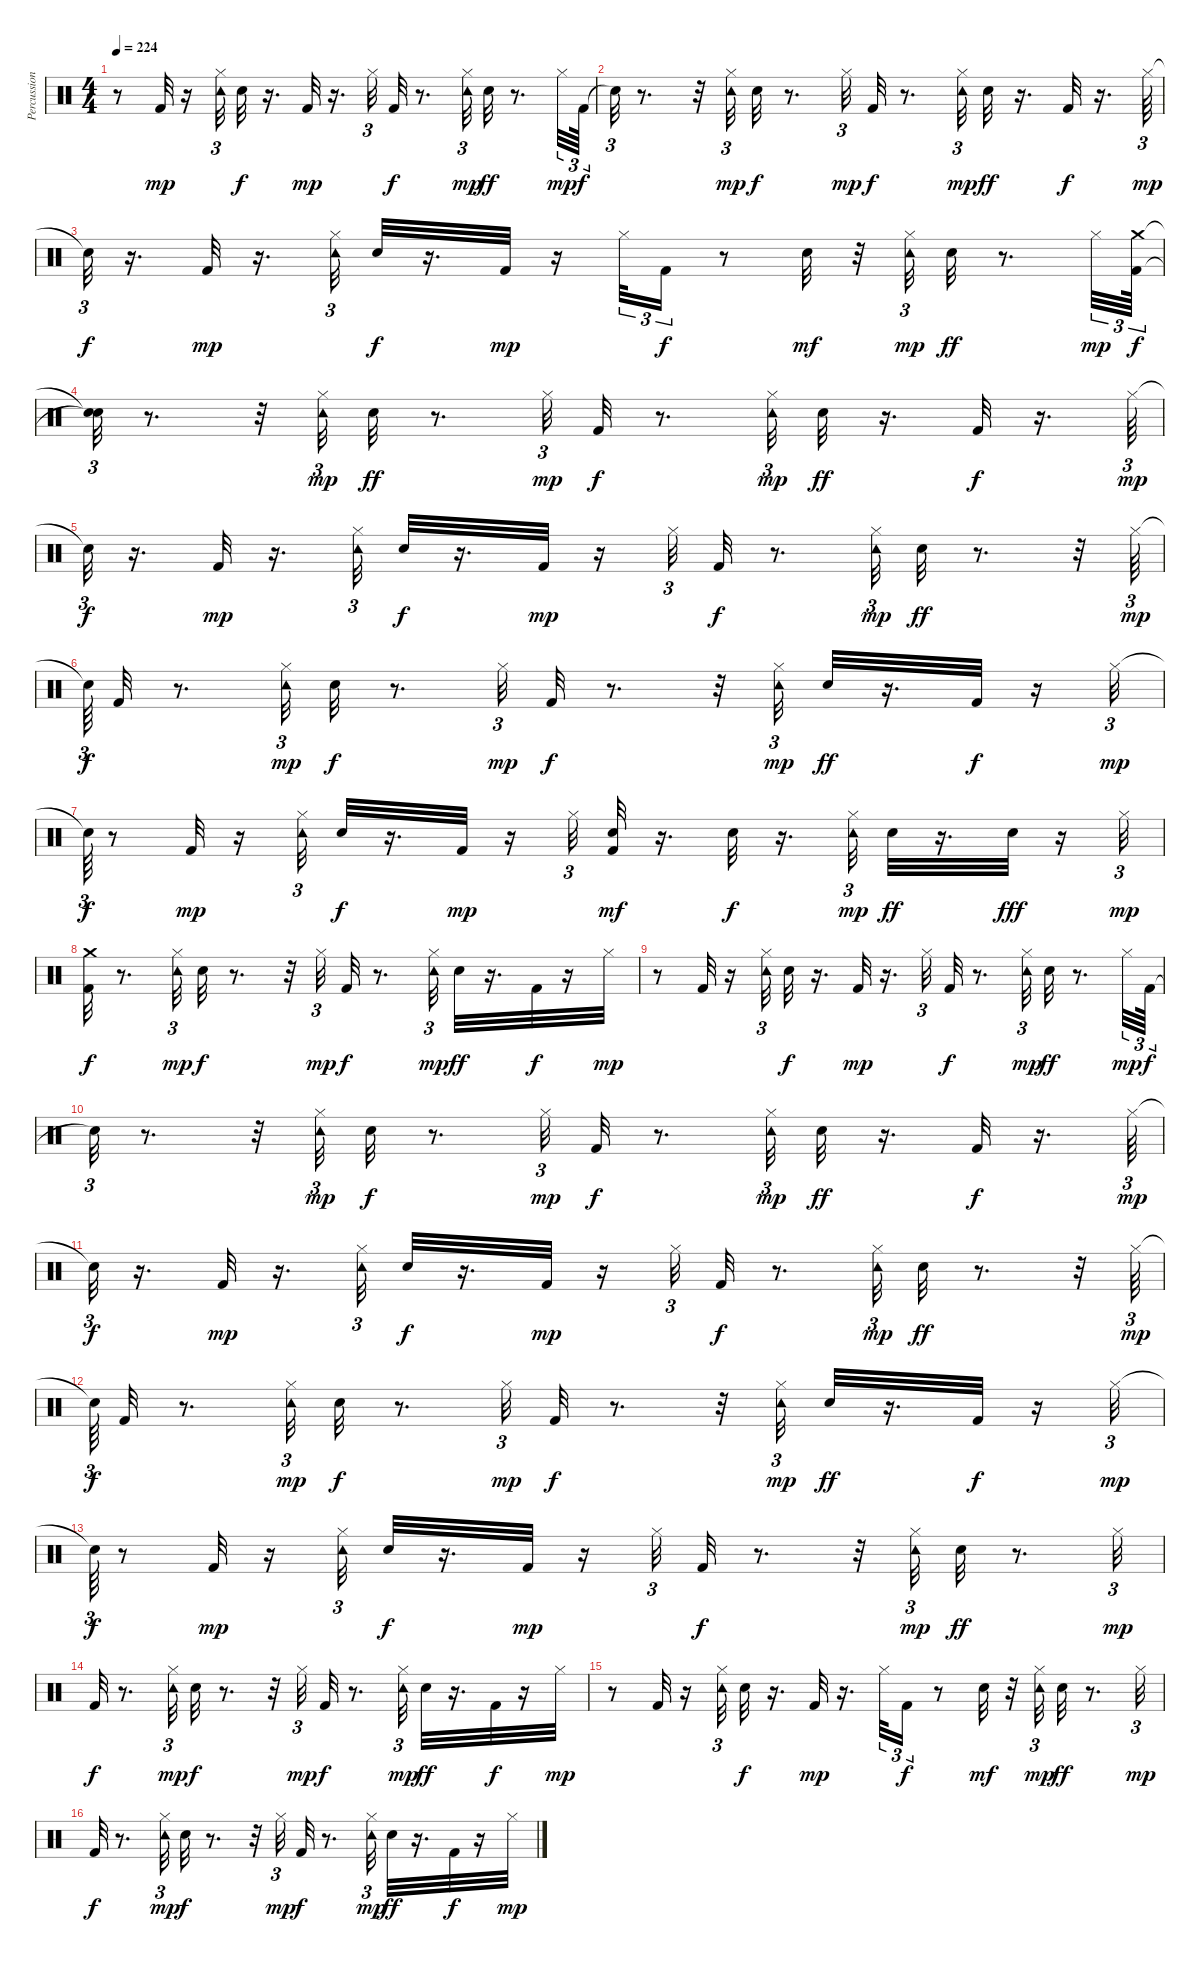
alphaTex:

\track ("Percussion" "Percussion") {instrument percussion}
\staff {score}
\articulation defaults
\ts (4 4)
\tempo 224
\clef neutral
\ks c
r.8{dy mp} "Kick (hit) 2".32 r.16 ("Tambourine (hit)" "Hi-Hat (closed)").32{tu (3 2)} "Snare (hit) 2".32{dy f} r.16{d} "Kick (hit) 2".32{dy mp} r.16{d} "Hi-Hat (closed)".32{tu (3 2)} "Kick (hit) 2".32{dy f} r.8{d} ("Tambourine (hit)" "Hi-Hat (closed)").32{tu (3 2) dy mp} "Snare (hit) 2".32{dy ff} r.8{d} "Hi-Hat (closed)".32{tu (3 2) dy mp} "Kick (hit) 2".64{tu (3 2) dy f} |
"Snare (hit)"{t}.32{tu (3 2)} r.8{d} r.32 ("Tambourine (hit)" "Hi-Hat (closed)").32{tu (3 2) dy mp} "Snare (hit) 2".32{dy f} r.8{d} "Hi-Hat (closed)".32{tu (3 2) dy mp} "Kick (hit) 2".32{dy f} r.8{d} ("Tambourine (hit)" "Hi-Hat (closed)").32{tu (3 2) dy mp} "Snare (hit) 2".32{dy ff} r.16{d} "Kick (hit) 2".32{dy f} r.16{d} "Hi-Hat (closed)".64{tu (3 2) dy mp} |
"Snare (hit)"{t}.32{tu (3 2) dy f} r.16{d} "Kick (hit) 2".32{dy mp} r.16{d} ("Tambourine (hit)" "Hi-Hat (closed)").32{tu (3 2)} "Snare (hit) 2".32{dy f} r.16{d} "Kick (hit) 2".32{dy mp} r.16 "Hi-Hat (closed)".32{tu (3 2)} "Kick (hit) 2".16{tu (3 2) dy f} r.8 "Snare (hit) 2".32{dy mf} r.32 ("Tambourine (hit)" "Hi-Hat (closed)").32{tu (3 2) dy mp} "Snare (hit) 2".32{dy ff} r.8{d} "Hi-Hat (closed)".32{tu (3 2) dy mp} ("Kick (hit) 2" "Crash medium (hit)").64{tu (3 2) dy f} |
("Snare (hit)"{t} "Snare (hit)"{t}).32{tu (3 2)} r.8{d} r.32 ("Tambourine (hit)" "Hi-Hat (closed)").32{tu (3 2) dy mp} "Snare (hit) 2".32{dy ff} r.8{d} "Hi-Hat (closed)".32{tu (3 2) dy mp} "Kick (hit) 2".32{dy f} r.8{d} ("Tambourine (hit)" "Hi-Hat (closed)").32{tu (3 2) dy mp} "Snare (hit) 2".32{dy ff} r.16{d} "Kick (hit) 2".32{dy f} r.16{d} "Hi-Hat (closed)".64{tu (3 2) dy mp} |
"Snare (hit)"{t}.32{tu (3 2) dy f} r.16{d} "Kick (hit) 2".32{dy mp} r.16{d} ("Tambourine (hit)" "Hi-Hat (closed)").32{tu (3 2)} "Snare (hit) 2".32{dy f} r.16{d} "Kick (hit) 2".32{dy mp} r.16 "Hi-Hat (closed)".32{tu (3 2)} "Kick (hit) 2".32{dy f} r.8{d} ("Tambourine (hit)" "Hi-Hat (closed)").32{tu (3 2) dy mp} "Snare (hit) 2".32{dy ff} r.8{d} r.32 "Hi-Hat (closed)".64{tu (3 2) dy mp} |
"Snare (hit)"{t}.64{tu (3 2) dy f} "Kick (hit) 2".32 r.8{d} ("Tambourine (hit)" "Hi-Hat (closed)").32{tu (3 2) dy mp} "Snare (hit) 2".32{dy f} r.8{d} "Hi-Hat (closed)".32{tu (3 2) dy mp} "Kick (hit) 2".32{dy f} r.8{d} r.32 ("Tambourine (hit)" "Hi-Hat (closed)").32{tu (3 2) dy mp} "Snare (hit) 2".32{dy ff} r.16{d} "Kick (hit) 2".32{dy f} r.16 "Hi-Hat (closed)".32{tu (3 2) dy mp} |
"Snare (hit)"{t}.64{tu (3 2) dy f} r.8 "Kick (hit) 2".32{dy mp} r.16 ("Tambourine (hit)" "Hi-Hat (closed)").32{tu (3 2)} "Snare (hit) 2".32{dy f} r.16{d} "Kick (hit) 2".32{dy mp} r.16 "Hi-Hat (closed)".32{tu (3 2)} ("Kick (hit) 2" "Snare (hit) 2").32{dy mf} r.16{d} "Snare (hit) 2".32{dy f} r.16{d} ("Tambourine (hit)" "Hi-Hat (closed)").32{tu (3 2) dy mp} "Snare (hit) 2".32{dy ff} r.16{d} "Snare (hit) 2".32{dy fff} r.16 "Hi-Hat (closed)".32{tu (3 2) dy mp} |
("Kick (hit) 2" "Crash medium (hit)").32{dy f} r.8{d} ("Tambourine (hit)" "Hi-Hat (closed)").32{tu (3 2) dy mp} "Snare (hit) 2".32{dy f} r.8{d} r.32 "Hi-Hat (closed)".32{tu (3 2) dy mp} "Kick (hit) 2".32{dy f} r.8{d} ("Tambourine (hit)" "Hi-Hat (closed)").32{tu (3 2) dy mp} "Snare (hit) 2".32{dy ff} r.16{d} "Kick (hit) 2".32{dy f} r.16 "Hi-Hat (closed)".32{dy mp} |
r.8 "Kick (hit) 2".32 r.16 ("Tambourine (hit)" "Hi-Hat (closed)").32{tu (3 2)} "Snare (hit) 2".32{dy f} r.16{d} "Kick (hit) 2".32{dy mp} r.16{d} "Hi-Hat (closed)".32{tu (3 2)} "Kick (hit) 2".32{dy f} r.8{d} ("Tambourine (hit)" "Hi-Hat (closed)").32{tu (3 2) dy mp} "Snare (hit) 2".32{dy ff} r.8{d} "Hi-Hat (closed)".32{tu (3 2) dy mp} "Kick (hit) 2".64{tu (3 2) dy f} |
"Snare (hit)"{t}.32{tu (3 2)} r.8{d} r.32 ("Tambourine (hit)" "Hi-Hat (closed)").32{tu (3 2) dy mp} "Snare (hit) 2".32{dy f} r.8{d} "Hi-Hat (closed)".32{tu (3 2) dy mp} "Kick (hit) 2".32{dy f} r.8{d} ("Tambourine (hit)" "Hi-Hat (closed)").32{tu (3 2) dy mp} "Snare (hit) 2".32{dy ff} r.16{d} "Kick (hit) 2".32{dy f} r.16{d} "Hi-Hat (closed)".64{tu (3 2) dy mp} |
"Snare (hit)"{t}.32{tu (3 2) dy f} r.16{d} "Kick (hit) 2".32{dy mp} r.16{d} ("Tambourine (hit)" "Hi-Hat (closed)").32{tu (3 2)} "Snare (hit) 2".32{dy f} r.16{d} "Kick (hit) 2".32{dy mp} r.16 "Hi-Hat (closed)".32{tu (3 2)} "Kick (hit) 2".32{dy f} r.8{d} ("Tambourine (hit)" "Hi-Hat (closed)").32{tu (3 2) dy mp} "Snare (hit) 2".32{dy ff} r.8{d} r.32 "Hi-Hat (closed)".64{tu (3 2) dy mp} |
"Snare (hit)"{t}.64{tu (3 2) dy f} "Kick (hit) 2".32 r.8{d} ("Tambourine (hit)" "Hi-Hat (closed)").32{tu (3 2) dy mp} "Snare (hit) 2".32{dy f} r.8{d} "Hi-Hat (closed)".32{tu (3 2) dy mp} "Kick (hit) 2".32{dy f} r.8{d} r.32 ("Tambourine (hit)" "Hi-Hat (closed)").32{tu (3 2) dy mp} "Snare (hit) 2".32{dy ff} r.16{d} "Kick (hit) 2".32{dy f} r.16 "Hi-Hat (closed)".32{tu (3 2) dy mp} |
"Snare (hit)"{t}.64{tu (3 2) dy f} r.8 "Kick (hit) 2".32{dy mp} r.16 ("Tambourine (hit)" "Hi-Hat (closed)").32{tu (3 2)} "Snare (hit) 2".32{dy f} r.16{d} "Kick (hit) 2".32{dy mp} r.16 "Hi-Hat (closed)".32{tu (3 2)} "Kick (hit) 2".32{dy f} r.8{d} r.32 ("Tambourine (hit)" "Hi-Hat (closed)").32{tu (3 2) dy mp} "Snare (hit) 2".32{dy ff} r.8{d} "Hi-Hat (closed)".32{tu (3 2) dy mp} |
"Kick (hit) 2".32{dy f} r.8{d} ("Tambourine (hit)" "Hi-Hat (closed)").32{tu (3 2) dy mp} "Snare (hit) 2".32{dy f} r.8{d} r.32 "Hi-Hat (closed)".32{tu (3 2) dy mp} "Kick (hit) 2".32{dy f} r.8{d} ("Tambourine (hit)" "Hi-Hat (closed)").32{tu (3 2) dy mp} "Snare (hit) 2".32{dy ff} r.16{d} "Kick (hit) 2".32{dy f} r.16 "Hi-Hat (closed)".32{dy mp} |
r.8 "Kick (hit) 2".32 r.16 ("Tambourine (hit)" "Hi-Hat (closed)").32{tu (3 2)} "Snare (hit) 2".32{dy f} r.16{d} "Kick (hit) 2".32{dy mp} r.16{d} "Hi-Hat (closed)".32{tu (3 2)} "Kick (hit) 2".16{tu (3 2) dy f} r.8 "Snare (hit) 2".32{dy mf} r.32 ("Tambourine (hit)" "Hi-Hat (closed)").32{tu (3 2) dy mp} "Snare (hit) 2".32{dy ff} r.8{d} "Hi-Hat (closed)".32{tu (3 2) dy mp} |
"Kick (hit) 2".32{dy f} r.8{d} ("Tambourine (hit)" "Hi-Hat (closed)").32{tu (3 2) dy mp} "Snare (hit) 2".32{dy f} r.8{d} r.32 "Hi-Hat (closed)".32{tu (3 2) dy mp} "Kick (hit) 2".32{dy f} r.8{d} ("Tambourine (hit)" "Hi-Hat (closed)").32{tu (3 2) dy mp} "Snare (hit) 2".32{dy ff} r.16{d} "Kick (hit) 2".32{dy f} r.16 "Hi-Hat (closed)".32{dy mp}
